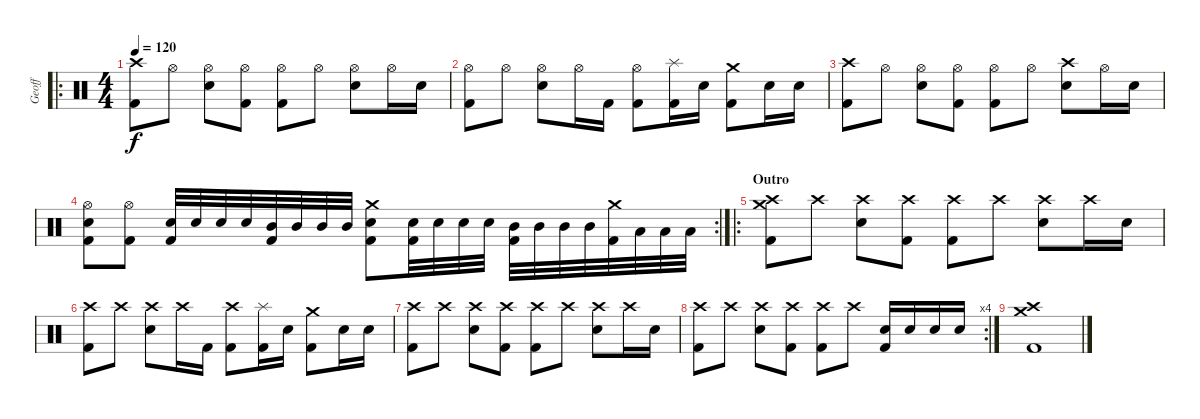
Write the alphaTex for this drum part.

\track ("Geoff" "Geoff") {instrument percussion}
\staff {score}
\articulation defaults
\ro
\ts (4 4)
\tempo 120
\clef neutral
\ks c
("Crash high (hit)" "Kick (hit) 2").8{dy f} "Hi-Hat (open)".8 ("Hi-Hat (open)" "Electric Snare (hit)").8 ("Hi-Hat (open)" "Kick (hit) 2").8 ("Hi-Hat (open)" "Kick (hit) 2").8 "Hi-Hat (open)".8 ("Hi-Hat (open)" "Electric Snare (hit)").8 "Hi-Hat (open)".16 "Electric Snare (hit)".16 |
("Hi-Hat (open)" "Kick (hit) 2").8 "Hi-Hat (open)".8 ("Hi-Hat (open)" "Electric Snare (hit)").8 "Hi-Hat (open)".16 "Kick (hit) 2".16 ("Hi-Hat (open)" "Kick (hit) 2").8 ("Splash (hit)" "Kick (hit) 2").16 "Electric Snare (hit)".16 ("Crash medium (hit)" "Kick (hit) 2").8 "Electric Snare (hit)".16 "Electric Snare (hit)".16 |
("Crash high (hit)" "Kick (hit) 2").8 "Hi-Hat (open)".8 ("Hi-Hat (open)" "Electric Snare (hit)").8 ("Hi-Hat (open)" "Kick (hit) 2").8 ("Hi-Hat (open)" "Kick (hit) 2").8 "Hi-Hat (open)".8 ("Crash high (hit)" "Electric Snare (hit)").8 "Hi-Hat (open)".16 "Electric Snare (hit)".16 |
\rc 2
("Hi-Hat (open)" "Electric Snare (hit)" "Kick (hit) 2").8 ("Hi-Hat (open)" "Kick (hit) 2").8 ("Electric Snare (hit)" "Kick (hit) 2").32 "Electric Snare (hit)".32 "Electric Snare (hit)".32 "Electric Snare (hit)".32 ("Mid Tom (hit)" "Kick (hit) 2").32 "Mid Tom (hit)".32 "Mid Tom (hit)".32 "Mid Tom (hit)".32 ("Crash medium (hit)" "Electric Snare (hit)" "Kick (hit) 2").8 ("Electric Snare (hit)" "Kick (hit) 2").32 "Electric Snare (hit)".32 "Electric Snare (hit)".32 "Electric Snare (hit)".32 ("Mid Tom (hit)" "Kick (hit) 2").32 "Mid Tom (hit)".32 "Mid Tom (hit)".32 "Mid Tom (hit)".32 ("Crash medium (hit)" "Kick (hit) 2").32 "Low Tom (hit)".32 "Low Tom (hit)".32 "Low Tom (hit)".32 |
\ro
\section ("" "Outro")
("Crash high (hit)" "Crash medium (hit)" "Kick (hit) 2").8 "Crash high (hit)".8 ("Crash high (hit)" "Electric Snare (hit)").8 ("Crash high (hit)" "Kick (hit) 2").8 ("Crash high (hit)" "Kick (hit) 2").8 "Crash high (hit)".8 ("Crash high (hit)" "Electric Snare (hit)").8 "Crash high (hit)".16 "Electric Snare (hit)".16 |
("Crash high (hit)" "Kick (hit) 2").8 "Crash high (hit)".8 ("Crash high (hit)" "Electric Snare (hit)").8 "Crash high (hit)".16 "Kick (hit) 2".16 ("Crash high (hit)" "Kick (hit) 2").8 ("Splash (hit)" "Kick (hit) 2").16 "Electric Snare (hit)".16 ("Crash medium (hit)" "Kick (hit) 2").8 "Electric Snare (hit)".16 "Electric Snare (hit)".16 |
("Crash high (hit)" "Kick (hit) 2").8 "Crash high (hit)".8 ("Crash high (hit)" "Electric Snare (hit)").8 ("Crash high (hit)" "Kick (hit) 2").8 ("Crash high (hit)" "Kick (hit) 2").8 "Crash high (hit)".8 ("Crash high (hit)" "Electric Snare (hit)").8 "Crash high (hit)".16 "Electric Snare (hit)".16 |
\rc 4
("Crash high (hit)" "Kick (hit) 2").8 "Crash high (hit)".8 ("Crash high (hit)" "Electric Snare (hit)").8 ("Crash high (hit)" "Kick (hit) 2").8 ("Crash high (hit)" "Kick (hit) 2").8 "Crash high (hit)".8 ("Electric Snare (hit)" "Kick (hit) 2").16 "Electric Snare (hit)".16 "Electric Snare (hit)".16 "Electric Snare (hit)".16 |
("Crash high (hit)" "Crash medium (hit)" "Kick (hit) 2").1
